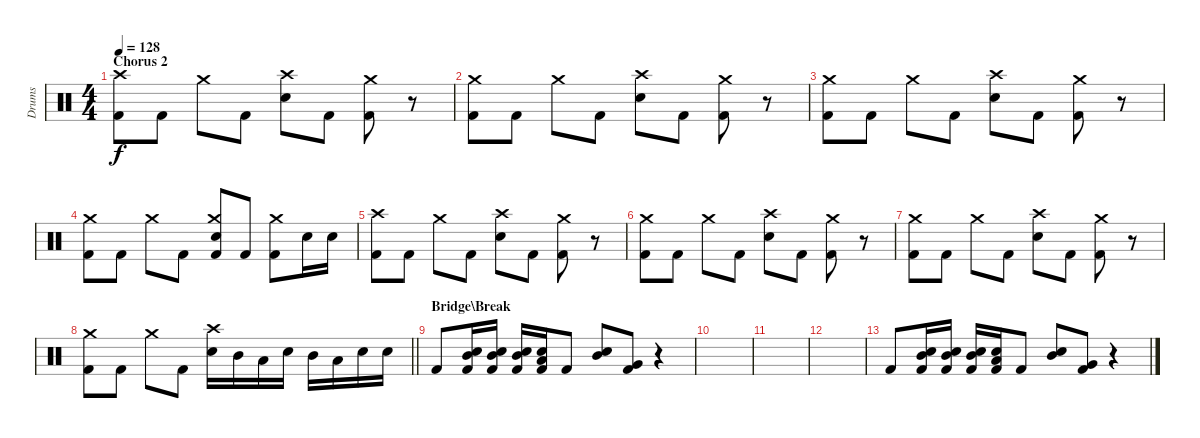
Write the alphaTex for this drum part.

\track ("Drums" "Drums") {instrument percussion}
\staff {score}
\articulation defaults
\ts (4 4)
\section ("" "Chorus 2")
\tempo 128
\clef neutral
\ks c
("Crash high (hit)" "Kick (hit) 2").8{dy f} "Kick (hit) 2".8 "Crash medium (hit)".8 "Kick (hit) 2".8 ("Crash high (hit)" "Electric Snare (hit)").8 "Kick (hit) 2".8 ("Crash medium (hit)" "Kick (hit) 2").8 r.8 |
("Crash medium (hit)" "Kick (hit) 2").8 "Kick (hit) 2".8 "Crash medium (hit)".8 "Kick (hit) 2".8 ("Crash high (hit)" "Electric Snare (hit)").8 "Kick (hit) 2".8 ("Crash medium (hit)" "Kick (hit) 2").8 r.8 |
("Crash medium (hit)" "Kick (hit) 2").8 "Kick (hit) 2".8 "Crash medium (hit)".8 "Kick (hit) 2".8 ("Crash high (hit)" "Electric Snare (hit)").8 "Kick (hit) 2".8 ("Crash medium (hit)" "Kick (hit) 2").8 r.8 |
("Crash medium (hit)" "Kick (hit) 2").8 "Kick (hit) 2".8 "Crash medium (hit)".8 "Kick (hit) 2".8 ("Crash medium (hit)" "Electric Snare (hit)" "Kick (hit) 2").8 "Kick (hit) 2".8 ("Crash medium (hit)" "Kick (hit) 2").8 "Electric Snare (hit)".16 "Electric Snare (hit)".16 |
("Crash high (hit)" "Kick (hit) 2").8 "Kick (hit) 2".8 "Crash medium (hit)".8 "Kick (hit) 2".8 ("Crash high (hit)" "Electric Snare (hit)").8 "Kick (hit) 2".8 ("Crash medium (hit)" "Kick (hit) 2").8 r.8 |
("Crash medium (hit)" "Kick (hit) 2").8 "Kick (hit) 2".8 "Crash medium (hit)".8 "Kick (hit) 2".8 ("Crash high (hit)" "Electric Snare (hit)").8 "Kick (hit) 2".8 ("Crash medium (hit)" "Kick (hit) 2").8 r.8 |
("Crash medium (hit)" "Kick (hit) 2").8 "Kick (hit) 2".8 "Crash medium (hit)".8 "Kick (hit) 2".8 ("Crash high (hit)" "Electric Snare (hit)").8 "Kick (hit) 2".8 ("Crash medium (hit)" "Kick (hit) 2").8 r.8 |
\barLineRight lightlight
("Crash medium (hit)" "Kick (hit) 2").8 "Kick (hit) 2".8 "Crash medium (hit)".8 "Kick (hit) 2".8 ("Crash high (hit)" "Electric Snare (hit)").16 "Mid Tom (hit)".16 "Low Tom (hit)".16 "Electric Snare (hit)".16 "Mid Tom (hit)".16 "Low Tom (hit)".16 "Electric Snare (hit)".16 "Electric Snare (hit)".16 |
\section ("" "Bridge\\Break")
"Kick (hit) 2".8 ("Electric Snare (hit)" "Mid Tom (hit)" "Kick (hit) 2").16 ("Electric Snare (hit)" "Mid Tom (hit)" "Kick (hit) 2").16 ("Electric Snare (hit)" "Mid Tom (hit)" "Kick (hit) 2").16 ("Electric Snare (hit)" "Low Tom (hit)" "Kick (hit) 2").16 "Kick (hit) 2".8 ("Electric Snare (hit)" "Mid Tom (hit)").8 ("Very Low Tom (hit)" "Kick (hit) 2").8 r.4 |
|
|
|
"Kick (hit) 2".8 ("Electric Snare (hit)" "Mid Tom (hit)" "Kick (hit) 2").16 ("Electric Snare (hit)" "Mid Tom (hit)" "Kick (hit) 2").16 ("Electric Snare (hit)" "Mid Tom (hit)" "Kick (hit) 2").16 ("Electric Snare (hit)" "Low Tom (hit)" "Kick (hit) 2").16 "Kick (hit) 2".8 ("Electric Snare (hit)" "Mid Tom (hit)").8 ("Very Low Tom (hit)" "Kick (hit) 2").8 r.4
